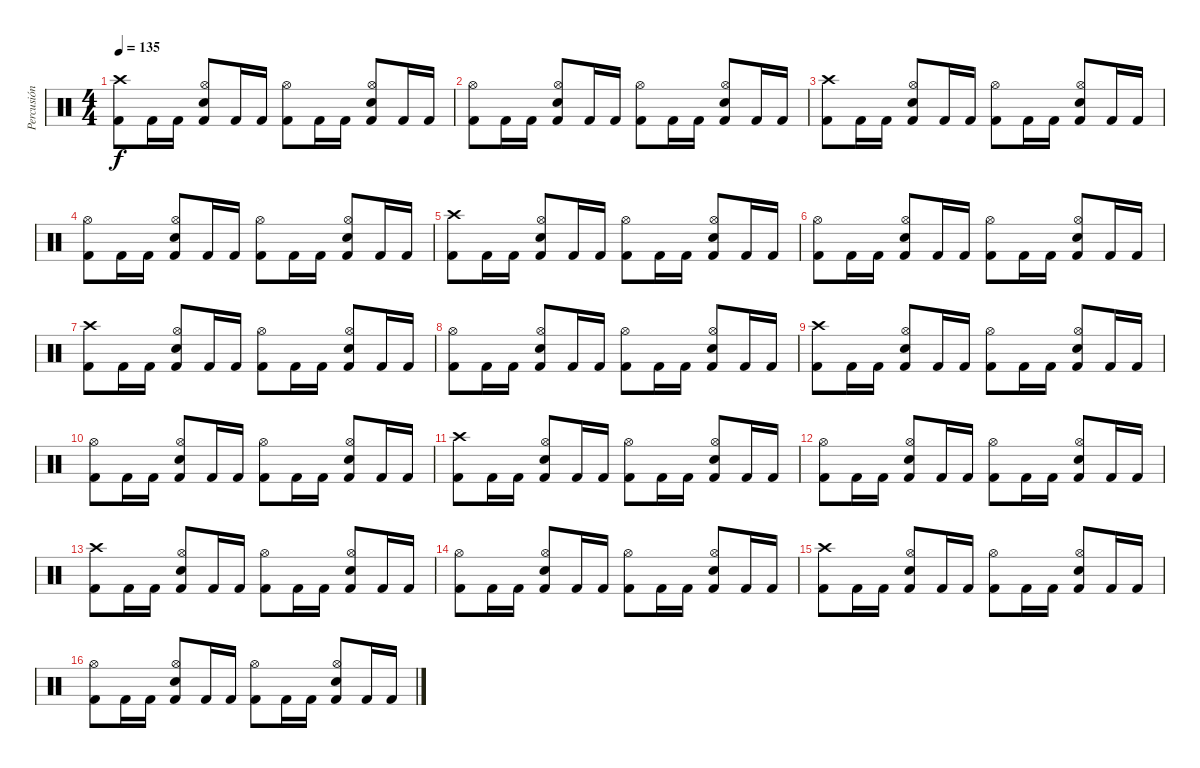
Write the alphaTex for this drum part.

\track ("Percusión" "Percusión") {instrument percussion}
\staff {score}
\articulation defaults
\ts (4 4)
\tempo 135
\clef neutral
\ks c
("Kick (hit) 2" "Crash high (hit)").8{dy f} "Kick (hit) 2".16 "Kick (hit) 2".16 ("Kick (hit) 2" "Hi-Hat (open)" "Snare (hit) 2").8 "Kick (hit) 2".16 "Kick (hit) 2".16 ("Kick (hit) 2" "Hi-Hat (open)").8 "Kick (hit) 2".16 "Kick (hit) 2".16 ("Kick (hit) 2" "Hi-Hat (open)" "Snare (hit) 2").8 "Kick (hit) 2".16 "Kick (hit) 2".16 |
("Kick (hit) 2" "Hi-Hat (open)").8 "Kick (hit) 2".16 "Kick (hit) 2".16 ("Kick (hit) 2" "Hi-Hat (open)" "Snare (hit) 2").8 "Kick (hit) 2".16 "Kick (hit) 2".16 ("Kick (hit) 2" "Hi-Hat (open)").8 "Kick (hit) 2".16 "Kick (hit) 2".16 ("Kick (hit) 2" "Hi-Hat (open)" "Snare (hit) 2").8 "Kick (hit) 2".16 "Kick (hit) 2".16 |
("Kick (hit) 2" "Crash high (hit)").8 "Kick (hit) 2".16 "Kick (hit) 2".16 ("Kick (hit) 2" "Hi-Hat (open)" "Snare (hit) 2").8 "Kick (hit) 2".16 "Kick (hit) 2".16 ("Kick (hit) 2" "Hi-Hat (open)").8 "Kick (hit) 2".16 "Kick (hit) 2".16 ("Kick (hit) 2" "Hi-Hat (open)" "Snare (hit) 2").8 "Kick (hit) 2".16 "Kick (hit) 2".16 |
("Kick (hit) 2" "Hi-Hat (open)").8 "Kick (hit) 2".16 "Kick (hit) 2".16 ("Kick (hit) 2" "Hi-Hat (open)" "Snare (hit) 2").8 "Kick (hit) 2".16 "Kick (hit) 2".16 ("Kick (hit) 2" "Hi-Hat (open)").8 "Kick (hit) 2".16 "Kick (hit) 2".16 ("Kick (hit) 2" "Hi-Hat (open)" "Snare (hit) 2").8 "Kick (hit) 2".16 "Kick (hit) 2".16 |
("Kick (hit) 2" "Crash high (hit)").8 "Kick (hit) 2".16 "Kick (hit) 2".16 ("Kick (hit) 2" "Hi-Hat (open)" "Snare (hit) 2").8 "Kick (hit) 2".16 "Kick (hit) 2".16 ("Kick (hit) 2" "Hi-Hat (open)").8 "Kick (hit) 2".16 "Kick (hit) 2".16 ("Kick (hit) 2" "Hi-Hat (open)" "Snare (hit) 2").8 "Kick (hit) 2".16 "Kick (hit) 2".16 |
("Kick (hit) 2" "Hi-Hat (open)").8 "Kick (hit) 2".16 "Kick (hit) 2".16 ("Kick (hit) 2" "Hi-Hat (open)" "Snare (hit) 2").8 "Kick (hit) 2".16 "Kick (hit) 2".16 ("Kick (hit) 2" "Hi-Hat (open)").8 "Kick (hit) 2".16 "Kick (hit) 2".16 ("Kick (hit) 2" "Hi-Hat (open)" "Snare (hit) 2").8 "Kick (hit) 2".16 "Kick (hit) 2".16 |
("Kick (hit) 2" "Crash high (hit)").8 "Kick (hit) 2".16 "Kick (hit) 2".16 ("Kick (hit) 2" "Hi-Hat (open)" "Snare (hit) 2").8 "Kick (hit) 2".16 "Kick (hit) 2".16 ("Kick (hit) 2" "Hi-Hat (open)").8 "Kick (hit) 2".16 "Kick (hit) 2".16 ("Kick (hit) 2" "Hi-Hat (open)" "Snare (hit) 2").8 "Kick (hit) 2".16 "Kick (hit) 2".16 |
("Kick (hit) 2" "Hi-Hat (open)").8 "Kick (hit) 2".16 "Kick (hit) 2".16 ("Kick (hit) 2" "Hi-Hat (open)" "Snare (hit) 2").8 "Kick (hit) 2".16 "Kick (hit) 2".16 ("Kick (hit) 2" "Hi-Hat (open)").8 "Kick (hit) 2".16 "Kick (hit) 2".16 ("Kick (hit) 2" "Hi-Hat (open)" "Snare (hit) 2").8 "Kick (hit) 2".16 "Kick (hit) 2".16 |
("Kick (hit) 2" "Crash high (hit)").8 "Kick (hit) 2".16 "Kick (hit) 2".16 ("Kick (hit) 2" "Hi-Hat (open)" "Snare (hit) 2").8 "Kick (hit) 2".16 "Kick (hit) 2".16 ("Kick (hit) 2" "Hi-Hat (open)").8 "Kick (hit) 2".16 "Kick (hit) 2".16 ("Kick (hit) 2" "Hi-Hat (open)" "Snare (hit) 2").8 "Kick (hit) 2".16 "Kick (hit) 2".16 |
("Kick (hit) 2" "Hi-Hat (open)").8 "Kick (hit) 2".16 "Kick (hit) 2".16 ("Kick (hit) 2" "Hi-Hat (open)" "Snare (hit) 2").8 "Kick (hit) 2".16 "Kick (hit) 2".16 ("Kick (hit) 2" "Hi-Hat (open)").8 "Kick (hit) 2".16 "Kick (hit) 2".16 ("Kick (hit) 2" "Hi-Hat (open)" "Snare (hit) 2").8 "Kick (hit) 2".16 "Kick (hit) 2".16 |
("Kick (hit) 2" "Crash high (hit)").8 "Kick (hit) 2".16 "Kick (hit) 2".16 ("Kick (hit) 2" "Hi-Hat (open)" "Snare (hit) 2").8 "Kick (hit) 2".16 "Kick (hit) 2".16 ("Kick (hit) 2" "Hi-Hat (open)").8 "Kick (hit) 2".16 "Kick (hit) 2".16 ("Kick (hit) 2" "Hi-Hat (open)" "Snare (hit) 2").8 "Kick (hit) 2".16 "Kick (hit) 2".16 |
("Kick (hit) 2" "Hi-Hat (open)").8 "Kick (hit) 2".16 "Kick (hit) 2".16 ("Kick (hit) 2" "Hi-Hat (open)" "Snare (hit) 2").8 "Kick (hit) 2".16 "Kick (hit) 2".16 ("Kick (hit) 2" "Hi-Hat (open)").8 "Kick (hit) 2".16 "Kick (hit) 2".16 ("Kick (hit) 2" "Hi-Hat (open)" "Snare (hit) 2").8 "Kick (hit) 2".16 "Kick (hit) 2".16 |
("Kick (hit) 2" "Crash high (hit)").8 "Kick (hit) 2".16 "Kick (hit) 2".16 ("Kick (hit) 2" "Hi-Hat (open)" "Snare (hit) 2").8 "Kick (hit) 2".16 "Kick (hit) 2".16 ("Kick (hit) 2" "Hi-Hat (open)").8 "Kick (hit) 2".16 "Kick (hit) 2".16 ("Kick (hit) 2" "Hi-Hat (open)" "Snare (hit) 2").8 "Kick (hit) 2".16 "Kick (hit) 2".16 |
("Kick (hit) 2" "Hi-Hat (open)").8 "Kick (hit) 2".16 "Kick (hit) 2".16 ("Kick (hit) 2" "Hi-Hat (open)" "Snare (hit) 2").8 "Kick (hit) 2".16 "Kick (hit) 2".16 ("Kick (hit) 2" "Hi-Hat (open)").8 "Kick (hit) 2".16 "Kick (hit) 2".16 ("Kick (hit) 2" "Hi-Hat (open)" "Snare (hit) 2").8 "Kick (hit) 2".16 "Kick (hit) 2".16 |
("Kick (hit) 2" "Crash high (hit)").8{volume 0} "Kick (hit) 2".16 "Kick (hit) 2".16 ("Kick (hit) 2" "Hi-Hat (open)" "Snare (hit) 2").8 "Kick (hit) 2".16 "Kick (hit) 2".16 ("Kick (hit) 2" "Hi-Hat (open)").8 "Kick (hit) 2".16 "Kick (hit) 2".16 ("Kick (hit) 2" "Hi-Hat (open)" "Snare (hit) 2").8 "Kick (hit) 2".16 "Kick (hit) 2".16 |
("Kick (hit) 2" "Hi-Hat (open)").8 "Kick (hit) 2".16 "Kick (hit) 2".16 ("Kick (hit) 2" "Hi-Hat (open)" "Snare (hit) 2").8 "Kick (hit) 2".16 "Kick (hit) 2".16 ("Kick (hit) 2" "Hi-Hat (open)").8 "Kick (hit) 2".16 "Kick (hit) 2".16 ("Kick (hit) 2" "Hi-Hat (open)" "Snare (hit) 2").8 "Kick (hit) 2".16 "Kick (hit) 2".16
